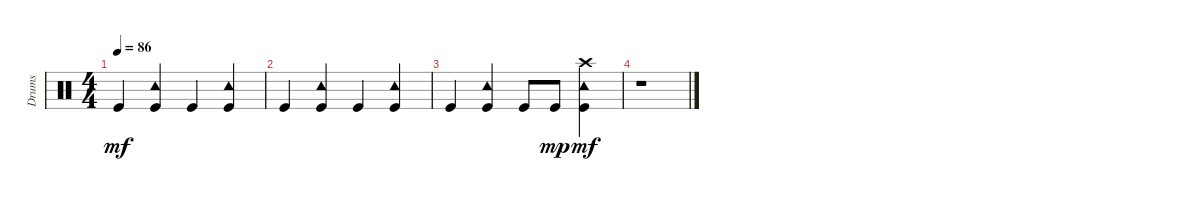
\track ("Drums" "Drums") {instrument percussion}
\staff {score}
\articulation defaults
\ts (4 4)
\tempo 86
\clef neutral
\ks c "Kick (hit)".4{dy mf}
("Kick (hit)" "Tambourine (hit)").4 "Kick (hit)".4 ("Kick (hit)" "Tambourine (hit)").4 |
"Kick (hit)".4 ("Kick (hit)" "Tambourine (hit)").4 "Kick (hit)".4 ("Kick (hit)" "Tambourine (hit)").4 |
"Kick (hit)".4 ("Kick (hit)" "Tambourine (hit)").4 "Kick (hit)".8 "Kick (hit)".8{dy mp} ("Kick (hit)" "Crash high (hit)" "Tambourine (hit)").4{dy mf} |
r.1
